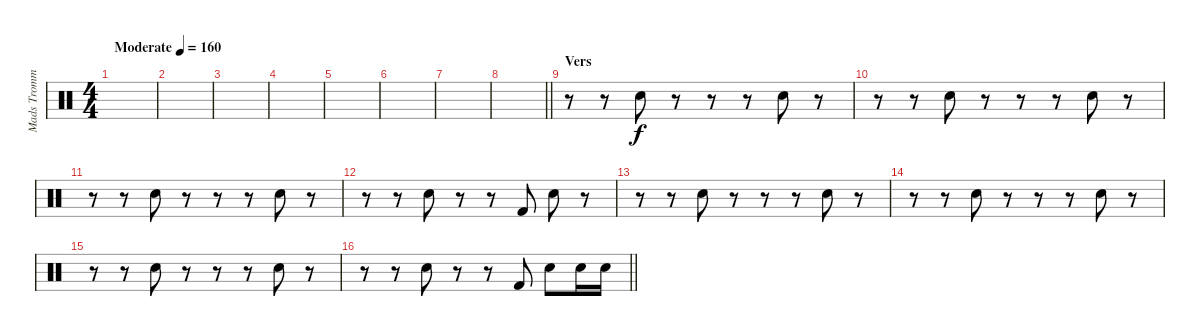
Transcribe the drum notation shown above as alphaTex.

\track ("Mads Trommer" "Mads Tromm") {instrument percussion}
\staff {score}
\articulation defaults
\ts (4 4)
\tempo (160 "Moderate")
\clef neutral
\ks c
|
|
|
|
|
|
|
\barLineRight lightlight
|
\section ("" "Vers")
r.8 r.8 "Electric Snare (hit)".8 r.8 r.8 r.8 "Electric Snare (hit)".8 r.8 |
r.8 r.8 "Electric Snare (hit)".8 r.8 r.8 r.8 "Electric Snare (hit)".8 r.8 |
r.8 r.8 "Electric Snare (hit)".8 r.8 r.8 r.8 "Electric Snare (hit)".8 r.8 |
r.8 r.8 "Electric Snare (hit)".8 r.8 r.8 "Kick (hit) 2".8 "Electric Snare (hit)".8 r.8 |
r.8 r.8 "Electric Snare (hit)".8 r.8 r.8 r.8 "Electric Snare (hit)".8 r.8 |
r.8 r.8 "Electric Snare (hit)".8 r.8 r.8 r.8 "Electric Snare (hit)".8 r.8 |
r.8 r.8 "Electric Snare (hit)".8 r.8 r.8 r.8 "Electric Snare (hit)".8 r.8 |
\barLineRight lightlight
r.8 r.8 "Electric Snare (hit)".8 r.8 r.8 "Kick (hit) 2".8 "Electric Snare (hit)".8 "Electric Snare (hit)".16 "Electric Snare (hit)".16
